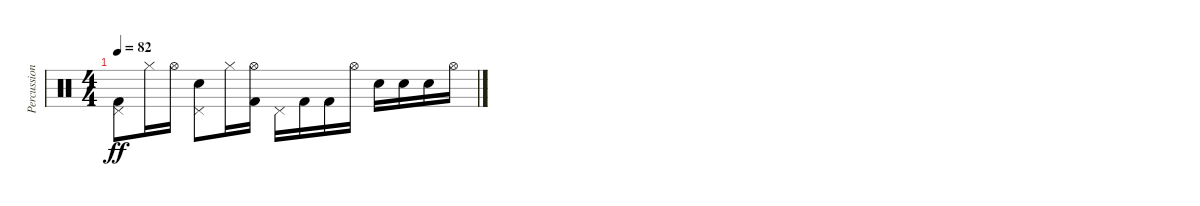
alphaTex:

\track ("Percussion: Nick Mason" "Percussion") {instrument percussion}
\staff {score}
\articulation defaults
\ts (4 4)
\tempo 82
\clef neutral
\ks c
("Pedal Hi-Hat (hit)" "Kick (hit) 2").8{dy ff} "Hi-Hat (closed)".16 "Hi-Hat (open)".16 ("Pedal Hi-Hat (hit)" "Snare (hit) 2").8 "Hi-Hat (closed)".16 ("Hi-Hat (open)" "Kick (hit) 2").16 "Pedal Hi-Hat (hit)".16 "Kick (hit) 2".16 "Kick (hit) 2".16 "Hi-Hat (open)".16 "Snare (hit) 2".16 "Electric Snare (hit)".16 "Electric Snare (hit)".16 "Hi-Hat (open)".16
